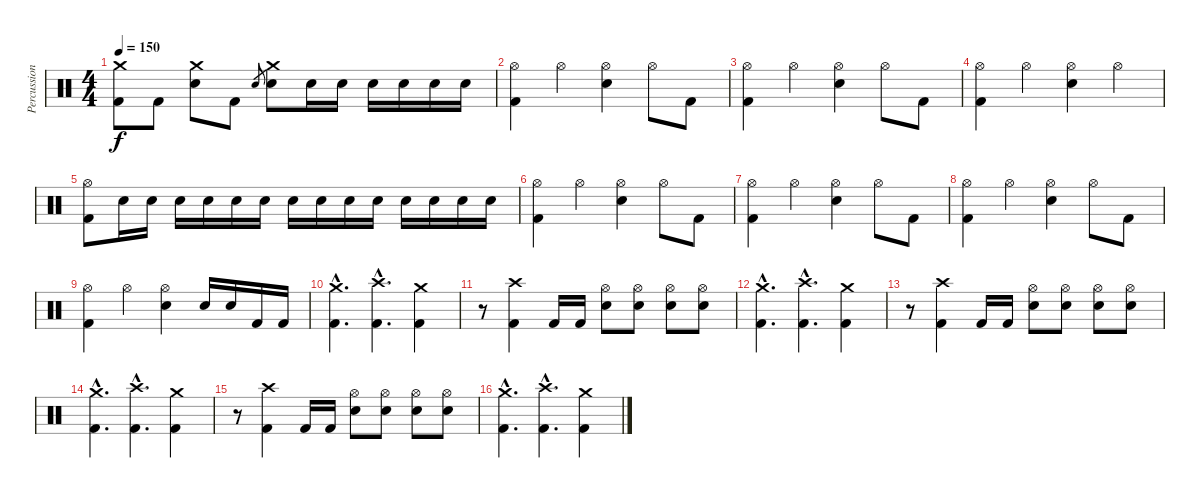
\track ("Percussion" "Percussion") {instrument percussion}
\staff {score}
\articulation defaults
\ts (4 4)
\tempo 150
\clef neutral
\ks c
("Crash medium (hit)" "Kick (hit) 2").8{dy f} "Kick (hit) 2".8 ("Crash medium (hit)" "Electric Snare (hit)").8 "Kick (hit) 2".8 "Electric Snare (hit)".8{gr} ("Crash medium (hit)" "Electric Snare (hit)").8 "Electric Snare (hit)".16 "Electric Snare (hit)".16 "Electric Snare (hit)".16 "Electric Snare (hit)".16 "Electric Snare (hit)".16 "Electric Snare (hit)".16 |
("Hi-Hat (open)" "Kick (hit) 2").4 "Hi-Hat (open)".4 ("Hi-Hat (open)" "Electric Snare (hit)").4 "Hi-Hat (open)".8 "Kick (hit) 2".8 |
("Hi-Hat (open)" "Kick (hit) 2").4 "Hi-Hat (open)".4 ("Hi-Hat (open)" "Electric Snare (hit)").4 "Hi-Hat (open)".8 "Kick (hit) 2".8 |
("Hi-Hat (open)" "Kick (hit) 2").4 "Hi-Hat (open)".4 ("Hi-Hat (open)" "Electric Snare (hit)").4 "Hi-Hat (open)".4 |
("Hi-Hat (open)" "Kick (hit) 2").8 "Electric Snare (hit)".16 "Electric Snare (hit)".16 "Electric Snare (hit)".16 "Electric Snare (hit)".16 "Electric Snare (hit)".16 "Electric Snare (hit)".16 "Electric Snare (hit)".16 "Electric Snare (hit)".16 "Electric Snare (hit)".16 "Electric Snare (hit)".16 "Electric Snare (hit)".16 "Electric Snare (hit)".16 "Electric Snare (hit)".16 "Electric Snare (hit)".16 |
("Hi-Hat (open)" "Kick (hit) 2").4 "Hi-Hat (open)".4 ("Hi-Hat (open)" "Electric Snare (hit)").4 "Hi-Hat (open)".8 "Kick (hit) 2".8 |
("Hi-Hat (open)" "Kick (hit) 2").4 "Hi-Hat (open)".4 ("Hi-Hat (open)" "Electric Snare (hit)").4 "Hi-Hat (open)".8 "Kick (hit) 2".8 |
("Hi-Hat (open)" "Kick (hit) 2").4 "Hi-Hat (open)".4 ("Hi-Hat (open)" "Electric Snare (hit)").4 "Hi-Hat (open)".8 "Kick (hit) 2".8 |
("Hi-Hat (open)" "Kick (hit) 2").4 "Hi-Hat (open)".4 ("Hi-Hat (open)" "Electric Snare (hit)").4 "Electric Snare (hit)".16 "Electric Snare (hit)".16 "Kick (hit) 2".16 "Kick (hit) 2".16 |
("Crash medium (hit)"{hac} "Kick (hit) 2"{hac}).4{d} ("Crash high (hit)"{hac} "Kick (hit) 2"{hac}).4{d} ("Crash medium (hit)" "Kick (hit) 2").4 |
r.8 ("Crash high (hit)" "Kick (hit) 2").4 "Kick (hit) 2".16 "Kick (hit) 2".16 ("Hi-Hat (open)" "Electric Snare (hit)").8 ("Hi-Hat (open)" "Electric Snare (hit)").8 ("Hi-Hat (open)" "Electric Snare (hit)").8 ("Hi-Hat (open)" "Electric Snare (hit)").8 |
("Crash medium (hit)"{hac} "Kick (hit) 2"{hac}).4{d} ("Crash high (hit)"{hac} "Kick (hit) 2"{hac}).4{d} ("Crash medium (hit)" "Kick (hit) 2").4 |
r.8 ("Crash high (hit)" "Kick (hit) 2").4 "Kick (hit) 2".16 "Kick (hit) 2".16 ("Hi-Hat (open)" "Electric Snare (hit)").8 ("Hi-Hat (open)" "Electric Snare (hit)").8 ("Hi-Hat (open)" "Electric Snare (hit)").8 ("Hi-Hat (open)" "Electric Snare (hit)").8 |
("Crash medium (hit)"{hac} "Kick (hit) 2"{hac}).4{d} ("Crash high (hit)"{hac} "Kick (hit) 2"{hac}).4{d} ("Crash medium (hit)" "Kick (hit) 2").4 |
r.8 ("Crash high (hit)" "Kick (hit) 2").4 "Kick (hit) 2".16 "Kick (hit) 2".16 ("Hi-Hat (open)" "Electric Snare (hit)").8 ("Hi-Hat (open)" "Electric Snare (hit)").8 ("Hi-Hat (open)" "Electric Snare (hit)").8 ("Hi-Hat (open)" "Electric Snare (hit)").8 |
("Crash medium (hit)"{hac} "Kick (hit) 2"{hac}).4{d} ("Crash high (hit)"{hac} "Kick (hit) 2"{hac}).4{d} ("Crash medium (hit)" "Kick (hit) 2").4
